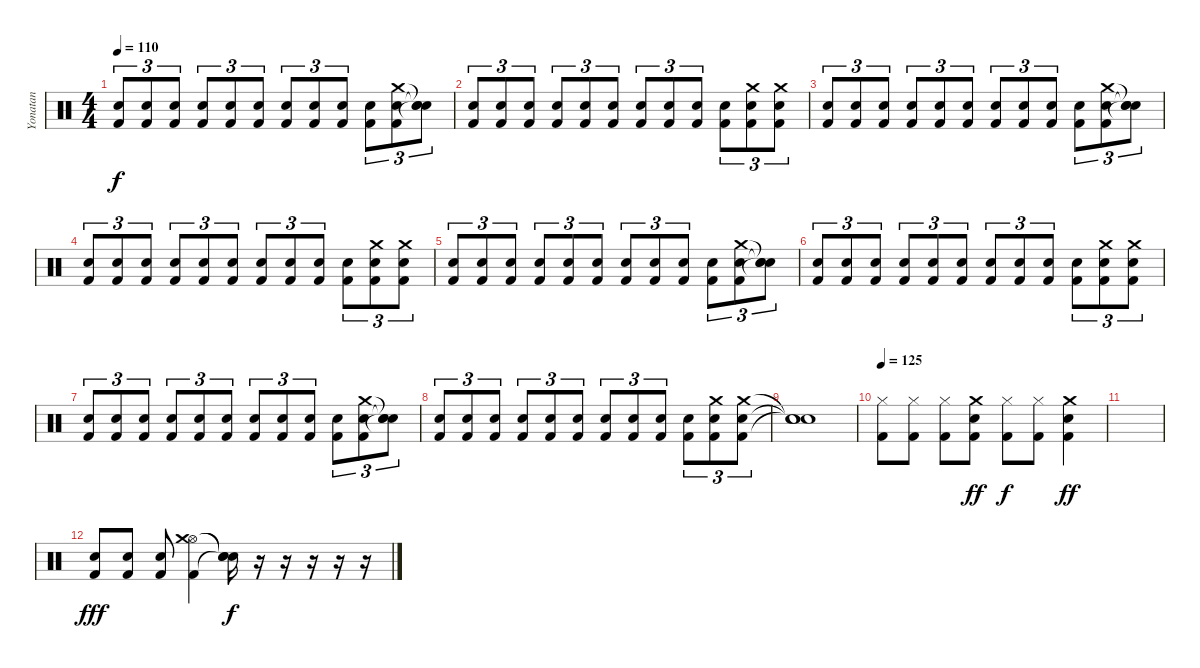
\track ("Yonatan" "Yonatan") {instrument percussion}
\staff {score}
\articulation defaults
\ts (4 4)
\tempo 110
\clef neutral
\ks c
("Kick (hit) 2" "Snare (hit) 2").8{tu (3 2) dy f} ("Kick (hit) 2" "Snare (hit) 2").8{tu (3 2)} ("Kick (hit) 2" "Snare (hit) 2").8{tu (3 2)} ("Kick (hit) 2" "Snare (hit) 2").8{tu (3 2)} ("Kick (hit) 2" "Snare (hit) 2").8{tu (3 2)} ("Kick (hit) 2" "Snare (hit) 2").8{tu (3 2)} ("Kick (hit) 2" "Snare (hit) 2").8{tu (3 2)} ("Kick (hit) 2" "Snare (hit) 2").8{tu (3 2)} ("Kick (hit) 2" "Snare (hit) 2").8{tu (3 2)} ("Kick (hit) 2" "Snare (hit) 2").8{tu (3 2)} ("Kick (hit) 2" "Snare (hit) 2" "Crash medium (hit)").8{tu (3 2)} ("Snare (hit)"{t} "Snare (hit)"{t} "Snare (hit)"{t}).8{tu (3 2)} |
("Kick (hit) 2" "Snare (hit) 2").8{tu (3 2)} ("Kick (hit) 2" "Snare (hit) 2").8{tu (3 2)} ("Kick (hit) 2" "Snare (hit) 2").8{tu (3 2)} ("Kick (hit) 2" "Snare (hit) 2").8{tu (3 2)} ("Kick (hit) 2" "Snare (hit) 2").8{tu (3 2)} ("Kick (hit) 2" "Snare (hit) 2").8{tu (3 2)} ("Kick (hit) 2" "Snare (hit) 2").8{tu (3 2)} ("Kick (hit) 2" "Snare (hit) 2").8{tu (3 2)} ("Kick (hit) 2" "Snare (hit) 2").8{tu (3 2)} ("Kick (hit) 2" "Snare (hit) 2").8{tu (3 2)} ("Kick (hit) 2" "Crash medium (hit)" "Snare (hit) 2").8{tu (3 2)} ("Kick (hit) 2" "Crash medium (hit)" "Snare (hit) 2").8{tu (3 2)} |
("Kick (hit) 2" "Snare (hit) 2").8{tu (3 2)} ("Kick (hit) 2" "Snare (hit) 2").8{tu (3 2)} ("Kick (hit) 2" "Snare (hit) 2").8{tu (3 2)} ("Kick (hit) 2" "Snare (hit) 2").8{tu (3 2)} ("Kick (hit) 2" "Snare (hit) 2").8{tu (3 2)} ("Kick (hit) 2" "Snare (hit) 2").8{tu (3 2)} ("Kick (hit) 2" "Snare (hit) 2").8{tu (3 2)} ("Kick (hit) 2" "Snare (hit) 2").8{tu (3 2)} ("Kick (hit) 2" "Snare (hit) 2").8{tu (3 2)} ("Kick (hit) 2" "Snare (hit) 2").8{tu (3 2)} ("Kick (hit) 2" "Snare (hit) 2" "Crash medium (hit)").8{tu (3 2)} ("Snare (hit)"{t} "Snare (hit)"{t} "Snare (hit)"{t}).8{tu (3 2)} |
("Kick (hit) 2" "Snare (hit) 2").8{tu (3 2)} ("Kick (hit) 2" "Snare (hit) 2").8{tu (3 2)} ("Kick (hit) 2" "Snare (hit) 2").8{tu (3 2)} ("Kick (hit) 2" "Snare (hit) 2").8{tu (3 2)} ("Kick (hit) 2" "Snare (hit) 2").8{tu (3 2)} ("Kick (hit) 2" "Snare (hit) 2").8{tu (3 2)} ("Kick (hit) 2" "Snare (hit) 2").8{tu (3 2)} ("Kick (hit) 2" "Snare (hit) 2").8{tu (3 2)} ("Kick (hit) 2" "Snare (hit) 2").8{tu (3 2)} ("Kick (hit) 2" "Snare (hit) 2").8{tu (3 2)} ("Kick (hit) 2" "Crash medium (hit)" "Snare (hit) 2").8{tu (3 2)} ("Kick (hit) 2" "Crash medium (hit)" "Snare (hit) 2").8{tu (3 2)} |
("Kick (hit) 2" "Snare (hit) 2").8{tu (3 2)} ("Kick (hit) 2" "Snare (hit) 2").8{tu (3 2)} ("Kick (hit) 2" "Snare (hit) 2").8{tu (3 2)} ("Kick (hit) 2" "Snare (hit) 2").8{tu (3 2)} ("Kick (hit) 2" "Snare (hit) 2").8{tu (3 2)} ("Kick (hit) 2" "Snare (hit) 2").8{tu (3 2)} ("Kick (hit) 2" "Snare (hit) 2").8{tu (3 2)} ("Kick (hit) 2" "Snare (hit) 2").8{tu (3 2)} ("Kick (hit) 2" "Snare (hit) 2").8{tu (3 2)} ("Kick (hit) 2" "Snare (hit) 2").8{tu (3 2)} ("Kick (hit) 2" "Snare (hit) 2" "Crash medium (hit)").8{tu (3 2)} ("Snare (hit)"{t} "Snare (hit)"{t} "Snare (hit)"{t}).8{tu (3 2)} |
("Kick (hit) 2" "Snare (hit) 2").8{tu (3 2)} ("Kick (hit) 2" "Snare (hit) 2").8{tu (3 2)} ("Kick (hit) 2" "Snare (hit) 2").8{tu (3 2)} ("Kick (hit) 2" "Snare (hit) 2").8{tu (3 2)} ("Kick (hit) 2" "Snare (hit) 2").8{tu (3 2)} ("Kick (hit) 2" "Snare (hit) 2").8{tu (3 2)} ("Kick (hit) 2" "Snare (hit) 2").8{tu (3 2)} ("Kick (hit) 2" "Snare (hit) 2").8{tu (3 2)} ("Kick (hit) 2" "Snare (hit) 2").8{tu (3 2)} ("Kick (hit) 2" "Snare (hit) 2").8{tu (3 2)} ("Kick (hit) 2" "Crash medium (hit)" "Snare (hit) 2").8{tu (3 2)} ("Kick (hit) 2" "Crash medium (hit)" "Snare (hit) 2").8{tu (3 2)} |
("Kick (hit) 2" "Snare (hit) 2").8{tu (3 2)} ("Kick (hit) 2" "Snare (hit) 2").8{tu (3 2)} ("Kick (hit) 2" "Snare (hit) 2").8{tu (3 2)} ("Kick (hit) 2" "Snare (hit) 2").8{tu (3 2)} ("Kick (hit) 2" "Snare (hit) 2").8{tu (3 2)} ("Kick (hit) 2" "Snare (hit) 2").8{tu (3 2)} ("Kick (hit) 2" "Snare (hit) 2").8{tu (3 2)} ("Kick (hit) 2" "Snare (hit) 2").8{tu (3 2)} ("Kick (hit) 2" "Snare (hit) 2").8{tu (3 2)} ("Kick (hit) 2" "Snare (hit) 2").8{tu (3 2)} ("Kick (hit) 2" "Snare (hit) 2" "Crash medium (hit)").8{tu (3 2)} ("Snare (hit)"{t} "Snare (hit)"{t} "Snare (hit)"{t}).8{tu (3 2)} |
("Kick (hit) 2" "Snare (hit) 2").8{tu (3 2)} ("Kick (hit) 2" "Snare (hit) 2").8{tu (3 2)} ("Kick (hit) 2" "Snare (hit) 2").8{tu (3 2)} ("Kick (hit) 2" "Snare (hit) 2").8{tu (3 2)} ("Kick (hit) 2" "Snare (hit) 2").8{tu (3 2)} ("Kick (hit) 2" "Snare (hit) 2").8{tu (3 2)} ("Kick (hit) 2" "Snare (hit) 2").8{tu (3 2)} ("Kick (hit) 2" "Snare (hit) 2").8{tu (3 2)} ("Kick (hit) 2" "Snare (hit) 2").8{tu (3 2)} ("Kick (hit) 2" "Snare (hit) 2").8{tu (3 2)} ("Kick (hit) 2" "Crash medium (hit)" "Snare (hit) 2").8{tu (3 2)} ("Kick (hit) 2" "Crash medium (hit)" "Snare (hit) 2").8{tu (3 2)} |
("Snare (hit)"{t} "Snare (hit)"{t} "Snare (hit)"{t}).1 |
\tempo 125
("Kick (hit) 2" "Hi-Hat (closed)").8 ("Kick (hit) 2" "Hi-Hat (closed)").8 ("Kick (hit) 2" "Hi-Hat (closed)").8 ("Kick (hit) 2" "Snare (hit) 2" "Crash medium (hit)").8{dy ff} ("Kick (hit) 2" "Hi-Hat (closed)").8{dy f} ("Kick (hit) 2" "Hi-Hat (closed)").8 ("Kick (hit) 2" "Snare (hit) 2" "Crash medium (hit)").4{dy ff} |
|
("Kick (hit) 2" "Snare (hit) 2").8{dy fff volume 16 balance 4} ("Kick (hit) 2" "Snare (hit) 2").8 ("Kick (hit) 2" "Snare (hit) 2").8 ("Kick (hit) 2" "Hi-Hat (open)" "Crash medium (hit)").4 ("Snare (hit)"{t} "Snare (hit)"{t} "Snare (hit)"{t}).16{dy f} r.16 r.16 r.16 r.16 r.16
